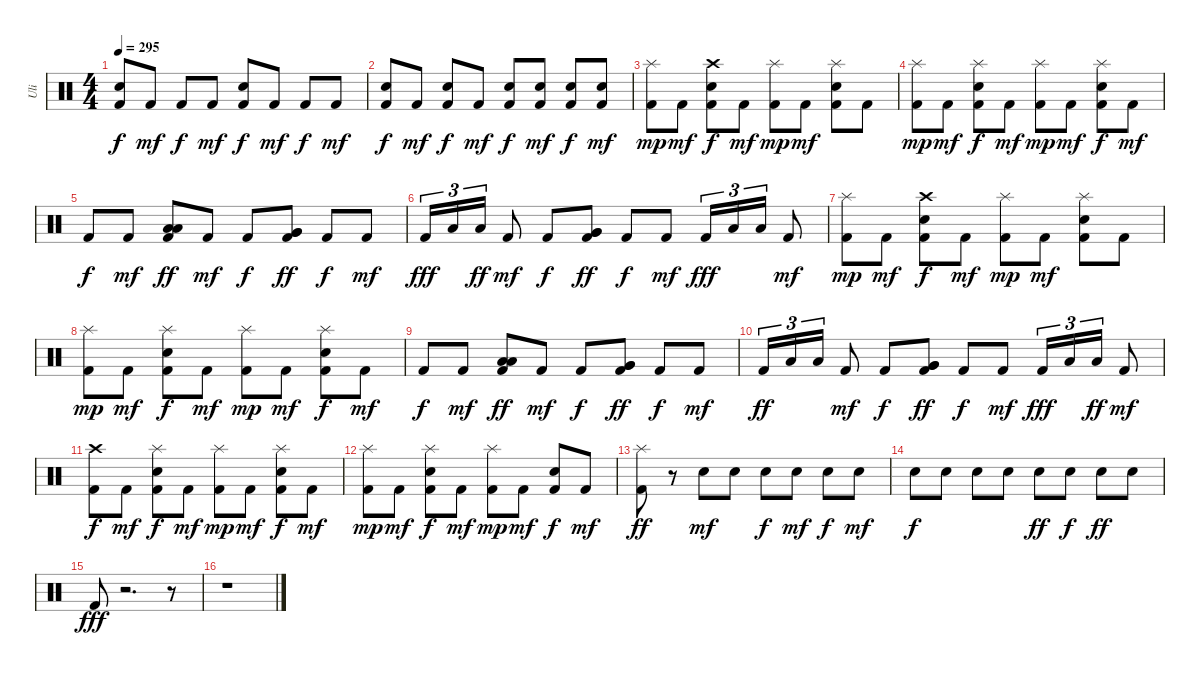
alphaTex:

\track ("Uli" "Uli") {instrument percussion}
\staff {score}
\articulation defaults
\ts (4 4)
\tempo 295
\clef neutral
\ks c
("Electric Snare (hit)" "Kick (hit) 2").8{dy f} "Kick (hit) 2".8{dy mf} "Kick (hit) 2".8{dy f} "Kick (hit) 2".8{dy mf} ("Electric Snare (hit)" "Kick (hit) 2").8{dy f} "Kick (hit) 2".8{dy mf} "Kick (hit) 2".8{dy f} "Kick (hit) 2".8{dy mf} |
("Electric Snare (hit)" "Kick (hit) 2").8{dy f} "Kick (hit) 2".8{dy mf} ("Electric Snare (hit)" "Kick (hit) 2").8{dy f} "Kick (hit) 2".8{dy mf} ("Electric Snare (hit)" "Kick (hit) 2").8{dy f} ("Electric Snare (hit)" "Kick (hit) 2").8{dy mf} ("Electric Snare (hit)" "Kick (hit) 2").8{dy f} ("Electric Snare (hit)" "Kick (hit) 2").8{dy mf} |
("Splash (hit)" "Kick (hit) 2").8{dy mp} "Kick (hit) 2".8{dy mf} ("Crash high (hit)" "Electric Snare (hit)" "Kick (hit) 2").8{dy f} "Kick (hit) 2".8{dy mf} ("Splash (hit)" "Kick (hit) 2").8{dy mp} "Kick (hit) 2".8{dy mf} ("Splash (hit)" "Electric Snare (hit)" "Kick (hit) 2").8 "Kick (hit) 2".8 |
("Splash (hit)" "Kick (hit) 2").8{dy mp} "Kick (hit) 2".8{dy mf} ("Splash (hit)" "Electric Snare (hit)" "Kick (hit) 2").8{dy f} "Kick (hit) 2".8{dy mf} ("Splash (hit)" "Kick (hit) 2").8{dy mp} "Kick (hit) 2".8{dy mf} ("Splash (hit)" "Electric Snare (hit)" "Kick (hit) 2").8{dy f} "Kick (hit) 2".8{dy mf} |
"Kick (hit) 2".8{dy f} "Kick (hit) 2".8{dy mf} ("Low Tom (hit)" "Kick (hit) 2" "Low Tom (hit)").8{dy ff} "Kick (hit) 2".8{dy mf} "Kick (hit) 2".8{dy f} ("Very Low Tom (hit)" "Kick (hit) 2" "Very Low Tom (hit)").8{dy ff} "Kick (hit) 2".8{dy f} "Kick (hit) 2".8{dy mf} |
"Kick (hit) 2".16{tu (3 2) dy fff} "Low Tom (hit)".16{tu (3 2)} "Low Tom (hit)".16{tu (3 2) dy ff} "Kick (hit) 2".8{dy mf} "Kick (hit) 2".8{dy f} ("Very Low Tom (hit)" "Kick (hit) 2" "Very Low Tom (hit)").8{dy ff} "Kick (hit) 2".8{dy f} "Kick (hit) 2".8{dy mf} "Kick (hit) 2".16{tu (3 2) dy fff} "Low Floor Tom (hit)".16{tu (3 2)} "Low Floor Tom (hit)".16{tu (3 2)} "Kick (hit) 2".8{dy mf} |
("Splash (hit)" "Kick (hit) 2").8{dy mp} "Kick (hit) 2".8{dy mf} ("Crash high (hit)" "Electric Snare (hit)" "Kick (hit) 2").8{dy f} "Kick (hit) 2".8{dy mf} ("Splash (hit)" "Kick (hit) 2").8{dy mp} "Kick (hit) 2".8{dy mf} ("Splash (hit)" "Electric Snare (hit)" "Kick (hit) 2").8 "Kick (hit) 2".8 |
("Splash (hit)" "Kick (hit) 2").8{dy mp} "Kick (hit) 2".8{dy mf} ("Splash (hit)" "Electric Snare (hit)" "Kick (hit) 2").8{dy f} "Kick (hit) 2".8{dy mf} ("Splash (hit)" "Kick (hit) 2").8{dy mp} "Kick (hit) 2".8{dy mf} ("Splash (hit)" "Electric Snare (hit)" "Kick (hit) 2").8{dy f} "Kick (hit) 2".8{dy mf} |
"Kick (hit) 2".8{dy f} "Kick (hit) 2".8{dy mf} ("Low Tom (hit)" "Kick (hit) 2" "Low Tom (hit)").8{dy ff} "Kick (hit) 2".8{dy mf} "Kick (hit) 2".8{dy f} ("Very Low Tom (hit)" "Kick (hit) 2" "Very Low Tom (hit)").8{dy ff} "Kick (hit) 2".8{dy f} "Kick (hit) 2".8{dy mf} |
"Kick (hit) 2".16{tu (3 2) dy ff} "Low Tom (hit)".16{tu (3 2)} "Low Tom (hit)".16{tu (3 2)} "Kick (hit) 2".8{dy mf} "Kick (hit) 2".8{dy f} ("Very Low Tom (hit)" "Kick (hit) 2" "Very Low Tom (hit)").8{dy ff} "Kick (hit) 2".8{dy f} "Kick (hit) 2".8{dy mf} "Kick (hit) 2".16{tu (3 2) dy fff} "Low Floor Tom (hit)".16{tu (3 2)} "Low Floor Tom (hit)".16{tu (3 2) dy ff} "Kick (hit) 2".8{dy mf} |
("Crash high (hit)" "Kick (hit) 2").8{dy f} "Kick (hit) 2".8{dy mf} ("Splash (hit)" "Electric Snare (hit)" "Kick (hit) 2").8{dy f} "Kick (hit) 2".8{dy mf} ("Splash (hit)" "Kick (hit) 2").8{dy mp} "Kick (hit) 2".8{dy mf} ("Splash (hit)" "Electric Snare (hit)" "Kick (hit) 2").8{dy f} "Kick (hit) 2".8{dy mf} |
("Splash (hit)" "Kick (hit) 2").8{dy mp} "Kick (hit) 2".8{dy mf} ("Splash (hit)" "Electric Snare (hit)" "Kick (hit) 2").8{dy f} "Kick (hit) 2".8{dy mf} ("Splash (hit)" "Kick (hit) 2").8{dy mp} "Kick (hit) 2".8{dy mf} ("Electric Snare (hit)" "Kick (hit) 2").8{dy f} "Kick (hit) 2".8{dy mf} |
("Splash (hit)" "Kick (hit) 2").8{dy ff} r.8 "Electric Snare (hit)".8{dy mf} "Electric Snare (hit)".8 "Electric Snare (hit)".8{dy f} "Electric Snare (hit)".8{dy mf} "Electric Snare (hit)".8{dy f} "Electric Snare (hit)".8{dy mf} |
"Electric Snare (hit)".8{dy f} "Electric Snare (hit)".8 "Electric Snare (hit)".8 "Electric Snare (hit)".8 "Electric Snare (hit)".8{dy ff} "Electric Snare (hit)".8{dy f} "Electric Snare (hit)".8{dy ff} "Electric Snare (hit)".8 |
"Kick (hit) 2".8{dy fff} r.2{d} r.8 |
r.1
